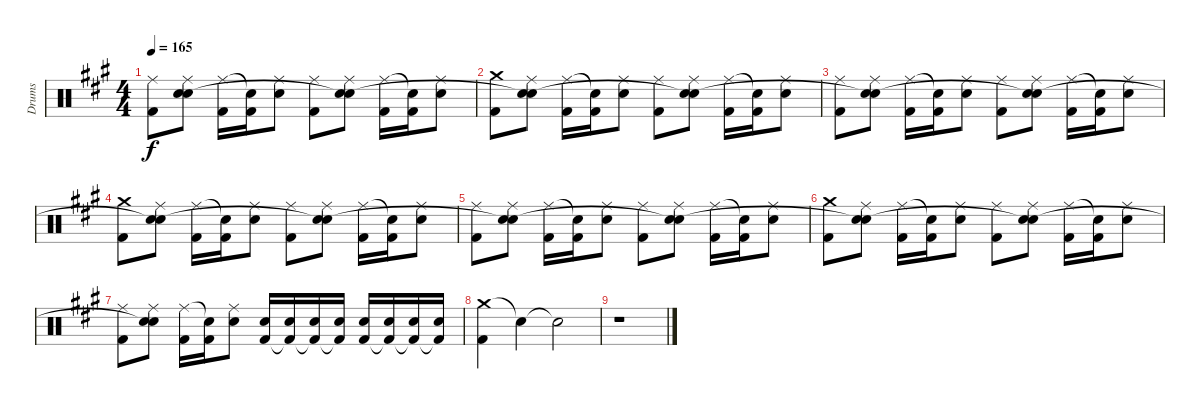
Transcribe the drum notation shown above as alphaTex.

\track ("Drums" "Drums") {instrument percussion}
\staff {score}
\articulation defaults
\ts (4 4)
\tempo 165
\clef neutral
\ks f#minor
("Ride (middle)" "Kick (hit) 2").8{dy f} ("Ride (middle)" "Electric Snare (hit)" "Snare (hit)"{t}).8 ("Ride (middle)" "Kick (hit) 2").16 ("Snare (hit)"{t} "Kick (hit) 2").16 ("Ride (middle)" "Electric Snare (hit)").8 ("Ride (middle)" "Kick (hit) 2").8 ("Ride (middle)" "Electric Snare (hit)" "Snare (hit)"{t}).8 ("Ride (middle)" "Kick (hit) 2").16 ("Snare (hit)"{t} "Kick (hit) 2").16 ("Ride (middle)" "Electric Snare (hit)").8 |
("Crash medium (hit)" "Kick (hit) 2").8 ("Ride (middle)" "Electric Snare (hit)" "Snare (hit)"{t}).8 ("Ride (middle)" "Kick (hit) 2").16 ("Snare (hit)"{t} "Kick (hit) 2").16 ("Ride (middle)" "Electric Snare (hit)").8 ("Ride (middle)" "Kick (hit) 2").8 ("Ride (middle)" "Electric Snare (hit)" "Snare (hit)"{t}).8 ("Ride (middle)" "Kick (hit) 2").16 ("Snare (hit)"{t} "Kick (hit) 2").16 ("Ride (middle)" "Electric Snare (hit)").8 |
("Ride (middle)" "Kick (hit) 2").8 ("Ride (middle)" "Electric Snare (hit)" "Snare (hit)"{t}).8 ("Ride (middle)" "Kick (hit) 2").16 ("Snare (hit)"{t} "Kick (hit) 2").16 ("Ride (middle)" "Electric Snare (hit)").8 ("Ride (middle)" "Kick (hit) 2").8 ("Ride (middle)" "Electric Snare (hit)" "Snare (hit)"{t}).8 ("Ride (middle)" "Kick (hit) 2").16 ("Snare (hit)"{t} "Kick (hit) 2").16 ("Ride (middle)" "Electric Snare (hit)").8 |
("Crash medium (hit)" "Kick (hit) 2").8 ("Ride (middle)" "Electric Snare (hit)" "Snare (hit)"{t}).8 ("Ride (middle)" "Kick (hit) 2").16 ("Snare (hit)"{t} "Kick (hit) 2").16 ("Ride (middle)" "Electric Snare (hit)").8 ("Ride (middle)" "Kick (hit) 2").8 ("Ride (middle)" "Electric Snare (hit)" "Snare (hit)"{t}).8 ("Ride (middle)" "Kick (hit) 2").16 ("Snare (hit)"{t} "Kick (hit) 2").16 ("Ride (middle)" "Electric Snare (hit)").8 |
("Ride (middle)" "Kick (hit) 2").8 ("Ride (middle)" "Electric Snare (hit)" "Snare (hit)"{t}).8 ("Ride (middle)" "Kick (hit) 2").16 ("Snare (hit)"{t} "Kick (hit) 2").16 ("Ride (middle)" "Electric Snare (hit)").8 ("Ride (middle)" "Kick (hit) 2").8 ("Ride (middle)" "Electric Snare (hit)" "Snare (hit)"{t}).8 ("Ride (middle)" "Kick (hit) 2").16 ("Snare (hit)"{t} "Kick (hit) 2").16 ("Ride (middle)" "Electric Snare (hit)").8 |
("Crash medium (hit)" "Kick (hit) 2").8 ("Ride (middle)" "Electric Snare (hit)" "Snare (hit)"{t}).8 ("Ride (middle)" "Kick (hit) 2").16 ("Snare (hit)"{t} "Kick (hit) 2").16 ("Ride (middle)" "Electric Snare (hit)").8 ("Ride (middle)" "Kick (hit) 2").8 ("Ride (middle)" "Electric Snare (hit)" "Snare (hit)"{t}).8 ("Ride (middle)" "Kick (hit) 2").16 ("Snare (hit)"{t} "Kick (hit) 2").16 ("Ride (middle)" "Electric Snare (hit)").8 |
("Ride (middle)" "Kick (hit) 2").8 ("Ride (middle)" "Electric Snare (hit)" "Snare (hit)"{t}).8 ("Ride (middle)" "Kick (hit) 2").16 ("Snare (hit)"{t} "Kick (hit) 2").16 ("Ride (middle)" "Electric Snare (hit)").8 ("Electric Snare (hit)" "Kick (hit) 2").16 ("Electric Snare (hit)" "Kick (hit) 2"{t}).16 ("Electric Snare (hit)" "Kick (hit) 2"{t}).16 ("Electric Snare (hit)" "Kick (hit) 2"{t}).16 ("Electric Snare (hit)" "Kick (hit) 2").16 ("Electric Snare (hit)" "Kick (hit) 2"{t}).16 ("Electric Snare (hit)" "Kick (hit) 2"{t}).16 ("Electric Snare (hit)" "Kick (hit) 2"{t}).16 |
("Crash medium (hit)" "Kick (hit) 2").4 "Snare (hit)"{t}.4 "Snare (hit)"{t}.2 |
r.1
